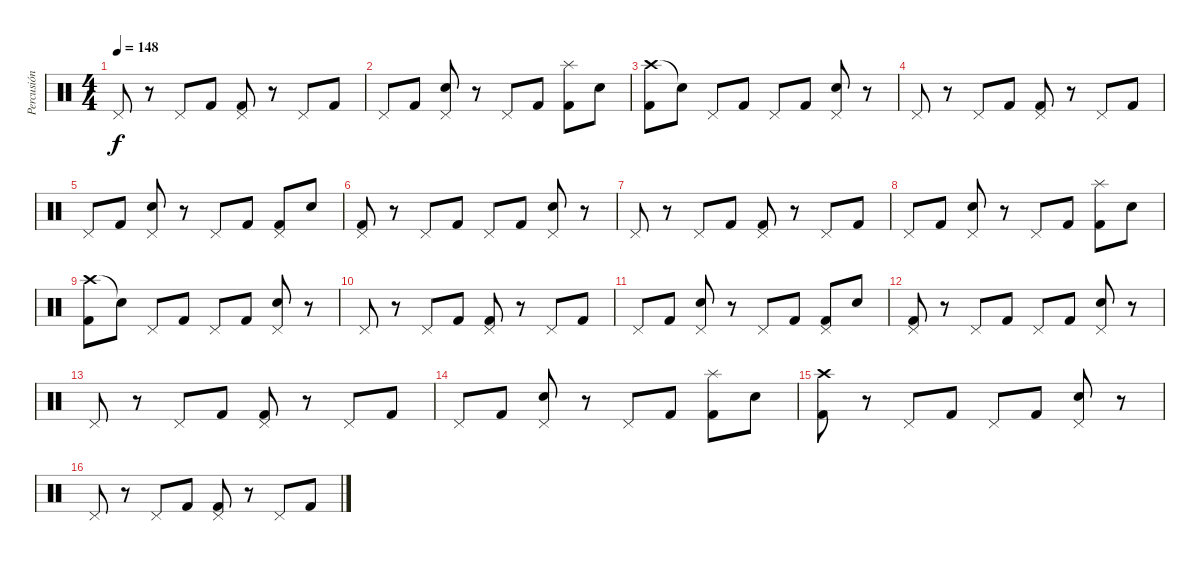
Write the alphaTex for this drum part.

\track ("Percusión" "Percusión") {instrument percussion}
\staff {score}
\articulation defaults
\ts (4 4)
\tempo 148
\clef neutral
\ks c "Pedal Hi-Hat (hit)".8{dy f}
r.8 "Pedal Hi-Hat (hit)".8 "Kick (hit) 2".8 ("Pedal Hi-Hat (hit)" "Kick (hit) 2").8 r.8 "Pedal Hi-Hat (hit)".8 "Kick (hit) 2".8 |
"Pedal Hi-Hat (hit)".8 "Kick (hit) 2".8 ("Pedal Hi-Hat (hit)" "Snare (hit) 2").8 r.8 "Pedal Hi-Hat (hit)".8 "Kick (hit) 2".8 ("Splash (hit)" "Kick (hit) 2").8 "Snare (hit) 2".8 |
("Crash high (hit)" "Kick (hit) 2").8 "Snare (hit)"{t}.8 "Pedal Hi-Hat (hit)".8 "Kick (hit) 2".8 "Pedal Hi-Hat (hit)".8 "Kick (hit) 2".8 ("Pedal Hi-Hat (hit)" "Snare (hit) 2").8 r.8 |
"Pedal Hi-Hat (hit)".8 r.8 "Pedal Hi-Hat (hit)".8 "Kick (hit) 2".8 ("Pedal Hi-Hat (hit)" "Kick (hit) 2").8 r.8 "Pedal Hi-Hat (hit)".8 "Kick (hit) 2".8 |
"Pedal Hi-Hat (hit)".8 "Kick (hit) 2".8 ("Pedal Hi-Hat (hit)" "Snare (hit) 2").8 r.8 "Pedal Hi-Hat (hit)".8 "Kick (hit) 2".8 ("Pedal Hi-Hat (hit)" "Kick (hit) 2").8 "Snare (hit) 2".8 |
("Pedal Hi-Hat (hit)" "Kick (hit) 2").8 r.8 "Pedal Hi-Hat (hit)".8 "Kick (hit) 2".8 "Pedal Hi-Hat (hit)".8 "Kick (hit) 2".8 ("Pedal Hi-Hat (hit)" "Snare (hit) 2").8 r.8 |
"Pedal Hi-Hat (hit)".8 r.8 "Pedal Hi-Hat (hit)".8 "Kick (hit) 2".8 ("Pedal Hi-Hat (hit)" "Kick (hit) 2").8 r.8 "Pedal Hi-Hat (hit)".8 "Kick (hit) 2".8 |
"Pedal Hi-Hat (hit)".8 "Kick (hit) 2".8 ("Pedal Hi-Hat (hit)" "Snare (hit) 2").8 r.8 "Pedal Hi-Hat (hit)".8 "Kick (hit) 2".8 ("Splash (hit)" "Kick (hit) 2").8 "Snare (hit) 2".8 |
("Crash high (hit)" "Kick (hit) 2").8 "Snare (hit)"{t}.8 "Pedal Hi-Hat (hit)".8 "Kick (hit) 2".8 "Pedal Hi-Hat (hit)".8 "Kick (hit) 2".8 ("Pedal Hi-Hat (hit)" "Snare (hit) 2").8 r.8 |
"Pedal Hi-Hat (hit)".8 r.8 "Pedal Hi-Hat (hit)".8 "Kick (hit) 2".8 ("Pedal Hi-Hat (hit)" "Kick (hit) 2").8 r.8 "Pedal Hi-Hat (hit)".8 "Kick (hit) 2".8 |
"Pedal Hi-Hat (hit)".8 "Kick (hit) 2".8 ("Pedal Hi-Hat (hit)" "Snare (hit) 2").8 r.8 "Pedal Hi-Hat (hit)".8 "Kick (hit) 2".8 ("Pedal Hi-Hat (hit)" "Kick (hit) 2").8 "Snare (hit) 2".8 |
("Pedal Hi-Hat (hit)" "Kick (hit) 2").8 r.8 "Pedal Hi-Hat (hit)".8 "Kick (hit) 2".8 "Pedal Hi-Hat (hit)".8 "Kick (hit) 2".8 ("Pedal Hi-Hat (hit)" "Snare (hit) 2").8 r.8 |
"Pedal Hi-Hat (hit)".8 r.8 "Pedal Hi-Hat (hit)".8 "Kick (hit) 2".8 ("Pedal Hi-Hat (hit)" "Kick (hit) 2").8 r.8 "Pedal Hi-Hat (hit)".8 "Kick (hit) 2".8 |
"Pedal Hi-Hat (hit)".8 "Kick (hit) 2".8 ("Pedal Hi-Hat (hit)" "Snare (hit) 2").8 r.8 "Pedal Hi-Hat (hit)".8 "Kick (hit) 2".8 ("Splash (hit)" "Kick (hit) 2").8 "Snare (hit) 2".8 |
("Crash high (hit)" "Kick (hit) 2").8 r.8 "Pedal Hi-Hat (hit)".8 "Kick (hit) 2".8 "Pedal Hi-Hat (hit)".8 "Kick (hit) 2".8 ("Pedal Hi-Hat (hit)" "Snare (hit) 2").8 r.8 |
"Pedal Hi-Hat (hit)".8 r.8 "Pedal Hi-Hat (hit)".8 "Kick (hit) 2".8 ("Pedal Hi-Hat (hit)" "Kick (hit) 2").8 r.8 "Pedal Hi-Hat (hit)".8 "Kick (hit) 2".8
